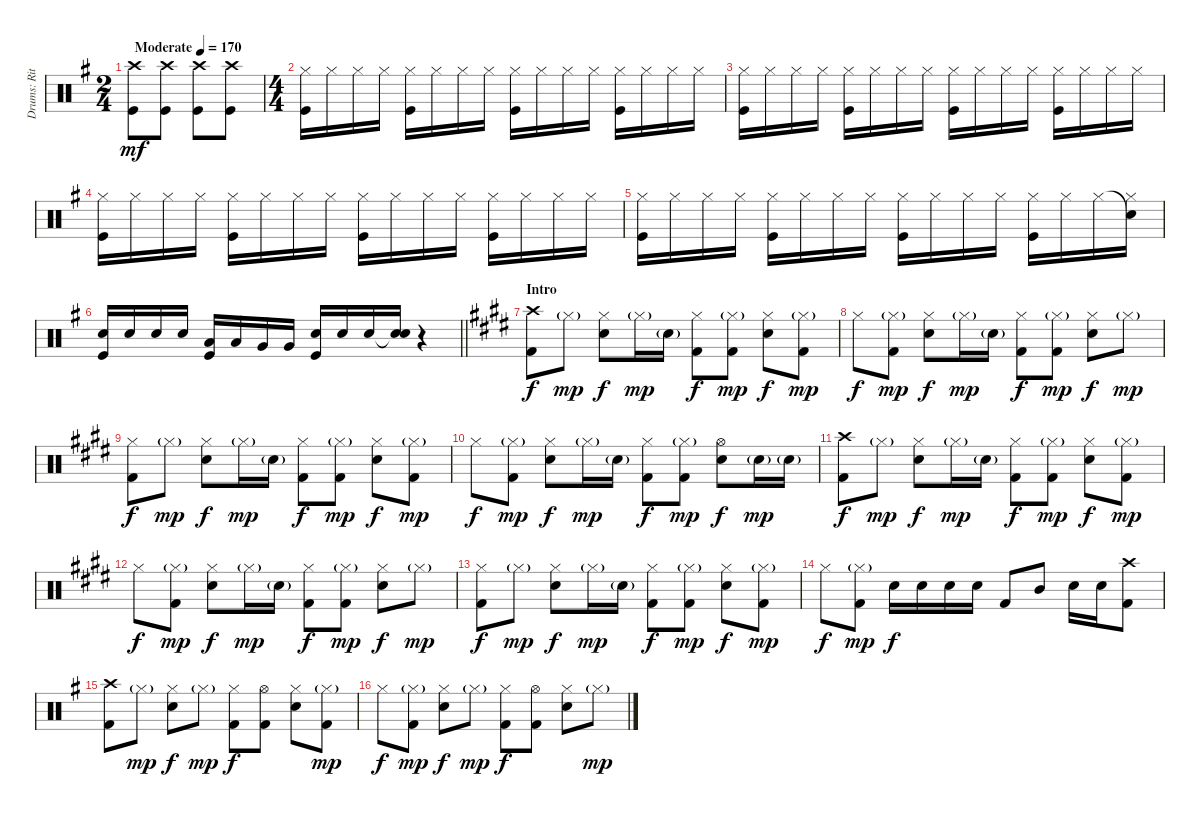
\track ("Drums: Ritsu Tainaka" "Drums: Rit") {instrument percussion}
\staff {score}
\articulation defaults
\ts (2 4)
\tempo (170 "Moderate")
\clef neutral
\ks eminor
("Crash high (hit)" "Kick (hit)").8{dy mf} ("Crash high (hit)" "Kick (hit)").8 ("Crash high (hit)" "Kick (hit)").8 ("Crash high (hit)" "Kick (hit)").8 |
\ts (4 4)
("Hi-Hat (closed)" "Kick (hit)").16 "Hi-Hat (closed)".16 "Hi-Hat (closed)".16 "Hi-Hat (closed)".16 ("Hi-Hat (closed)" "Kick (hit)").16 "Hi-Hat (closed)".16 "Hi-Hat (closed)".16 "Hi-Hat (closed)".16 ("Hi-Hat (closed)" "Kick (hit)").16 "Hi-Hat (closed)".16 "Hi-Hat (closed)".16 "Hi-Hat (closed)".16 ("Hi-Hat (closed)" "Kick (hit)").16 "Hi-Hat (closed)".16 "Hi-Hat (closed)".16 "Hi-Hat (closed)".16 |
("Hi-Hat (closed)" "Kick (hit)").16 "Hi-Hat (closed)".16 "Hi-Hat (closed)".16 "Hi-Hat (closed)".16 ("Hi-Hat (closed)" "Kick (hit)").16 "Hi-Hat (closed)".16 "Hi-Hat (closed)".16 "Hi-Hat (closed)".16 ("Hi-Hat (closed)" "Kick (hit)").16 "Hi-Hat (closed)".16 "Hi-Hat (closed)".16 "Hi-Hat (closed)".16 ("Hi-Hat (closed)" "Kick (hit)").16 "Hi-Hat (closed)".16 "Hi-Hat (closed)".16 "Hi-Hat (closed)".16 |
("Hi-Hat (closed)" "Kick (hit)").16 "Hi-Hat (closed)".16 "Hi-Hat (closed)".16 "Hi-Hat (closed)".16 ("Hi-Hat (closed)" "Kick (hit)").16 "Hi-Hat (closed)".16 "Hi-Hat (closed)".16 "Hi-Hat (closed)".16 ("Hi-Hat (closed)" "Kick (hit)").16 "Hi-Hat (closed)".16 "Hi-Hat (closed)".16 "Hi-Hat (closed)".16 ("Hi-Hat (closed)" "Kick (hit)").16 "Hi-Hat (closed)".16 "Hi-Hat (closed)".16 "Hi-Hat (closed)".16 |
("Hi-Hat (closed)" "Kick (hit)").16 "Hi-Hat (closed)".16 "Hi-Hat (closed)".16 "Hi-Hat (closed)".16 ("Hi-Hat (closed)" "Kick (hit)").16 "Hi-Hat (closed)".16 "Hi-Hat (closed)".16 "Hi-Hat (closed)".16 ("Hi-Hat (closed)" "Kick (hit)").16 "Hi-Hat (closed)".16 "Hi-Hat (closed)".16 "Hi-Hat (closed)".16 ("Hi-Hat (closed)" "Kick (hit)").16 "Hi-Hat (closed)".16 "Hi-Hat (closed)".16 ("Snare (hit)"{t} "Hi-Hat (closed)").16 |
\barLineRight lightlight
("Snare (hit) 2" "Kick (hit)").16 "Snare (hit) 2".16 "Snare (hit) 2".16 "Snare (hit) 2".16 ("Low Tom (hit)" "Kick (hit)").16 "Low Tom (hit)".16 "Very Low Tom (hit)".16 "Very Low Tom (hit)".16 ("Snare (hit) 2" "Kick (hit)").16 "Snare (hit) 2".16 "Snare (hit) 2".16 ("Snare (hit)"{t} "Snare (hit) 2").16 r.4{volume 0} |
\section ("" "Intro")
\ks e
("Crash high (hit)" "Kick (hit) 2").8{dy f volume 16} "Hi-Hat (closed)"{g}.8{dy mp} ("Hi-Hat (closed)" "Electric Snare (hit)").8{dy f} "Hi-Hat (closed)"{g}.16{dy mp} "Electric Snare (hit)"{g}.16 ("Hi-Hat (closed)" "Kick (hit) 2").8{dy f} ("Hi-Hat (closed)"{g} "Kick (hit) 2").8{dy mp} ("Hi-Hat (closed)" "Electric Snare (hit)").8{dy f} ("Hi-Hat (closed)"{g} "Kick (hit) 2").8{dy mp} |
"Hi-Hat (closed)".8{dy f} ("Hi-Hat (closed)"{g} "Kick (hit) 2").8{dy mp} ("Hi-Hat (closed)" "Electric Snare (hit)").8{dy f} "Hi-Hat (closed)"{g}.16{dy mp} "Electric Snare (hit)"{g}.16 ("Hi-Hat (closed)" "Kick (hit) 2").8{dy f} ("Hi-Hat (closed)"{g} "Kick (hit) 2").8{dy mp} ("Hi-Hat (closed)" "Electric Snare (hit)").8{dy f} "Hi-Hat (closed)"{g}.8{dy mp} |
("Hi-Hat (closed)" "Kick (hit) 2").8{dy f} "Hi-Hat (closed)"{g}.8{dy mp} ("Hi-Hat (closed)" "Electric Snare (hit)").8{dy f} "Hi-Hat (closed)"{g}.16{dy mp} "Electric Snare (hit)"{g}.16 ("Hi-Hat (closed)" "Kick (hit) 2").8{dy f} ("Hi-Hat (closed)"{g} "Kick (hit) 2").8{dy mp} ("Hi-Hat (closed)" "Electric Snare (hit)").8{dy f} ("Hi-Hat (closed)"{g} "Kick (hit) 2").8{dy mp} |
"Hi-Hat (closed)".8{dy f} ("Hi-Hat (closed)"{g} "Kick (hit) 2").8{dy mp} ("Hi-Hat (closed)" "Electric Snare (hit)").8{dy f} "Hi-Hat (closed)"{g}.16{dy mp} "Electric Snare (hit)"{g}.16 ("Hi-Hat (closed)" "Kick (hit) 2").8{dy f} ("Hi-Hat (closed)"{g} "Kick (hit) 2").8{dy mp} ("Hi-Hat (open)" "Electric Snare (hit)").8{dy f} "Electric Snare (hit)"{g}.16{dy mp} "Electric Snare (hit)"{g}.16 |
("Crash high (hit)" "Kick (hit) 2").8{dy f} "Hi-Hat (closed)"{g}.8{dy mp} ("Hi-Hat (closed)" "Electric Snare (hit)").8{dy f} "Hi-Hat (closed)"{g}.16{dy mp} "Electric Snare (hit)"{g}.16 ("Hi-Hat (closed)" "Kick (hit) 2").8{dy f} ("Hi-Hat (closed)"{g} "Kick (hit) 2").8{dy mp} ("Hi-Hat (closed)" "Electric Snare (hit)").8{dy f} ("Hi-Hat (closed)"{g} "Kick (hit) 2").8{dy mp} |
"Hi-Hat (closed)".8{dy f} ("Hi-Hat (closed)"{g} "Kick (hit) 2").8{dy mp} ("Hi-Hat (closed)" "Electric Snare (hit)").8{dy f} "Hi-Hat (closed)"{g}.16{dy mp} "Electric Snare (hit)"{g}.16 ("Hi-Hat (closed)" "Kick (hit) 2").8{dy f} ("Hi-Hat (closed)"{g} "Kick (hit) 2").8{dy mp} ("Hi-Hat (closed)" "Electric Snare (hit)").8{dy f} "Hi-Hat (closed)"{g}.8{dy mp} |
("Hi-Hat (closed)" "Kick (hit) 2").8{dy f} "Hi-Hat (closed)"{g}.8{dy mp} ("Hi-Hat (closed)" "Electric Snare (hit)").8{dy f} "Hi-Hat (closed)"{g}.16{dy mp} "Electric Snare (hit)"{g}.16 ("Hi-Hat (closed)" "Kick (hit) 2").8{dy f} ("Hi-Hat (closed)"{g} "Kick (hit) 2").8{dy mp} ("Hi-Hat (closed)" "Electric Snare (hit)").8{dy f} ("Hi-Hat (closed)"{g} "Kick (hit) 2").8{dy mp} |
"Hi-Hat (closed)".8{dy f} ("Hi-Hat (closed)"{g} "Kick (hit) 2").8{dy mp} "Electric Snare (hit)".16{dy f} "Electric Snare (hit)".16 "Electric Snare (hit)".16 "Electric Snare (hit)".16 "Kick (hit) 2".8 "Mid Tom (hit)".8 "Electric Snare (hit)".16 "Electric Snare (hit)".16 ("Crash high (hit)" "Kick (hit) 2").8 |
\ks eminor
("Crash high (hit)" "Kick (hit) 2").8 "Hi-Hat (closed)"{g}.8{dy mp} ("Hi-Hat (closed)" "Electric Snare (hit)").8{dy f} "Hi-Hat (closed)"{g}.8{dy mp} ("Hi-Hat (closed)" "Kick (hit) 2").8{dy f} ("Hi-Hat (open)" "Kick (hit) 2").8 ("Hi-Hat (closed)" "Electric Snare (hit)").8 ("Hi-Hat (closed)"{g} "Kick (hit) 2").8{dy mp} |
"Hi-Hat (closed)".8{dy f} ("Hi-Hat (closed)"{g} "Kick (hit) 2").8{dy mp} ("Hi-Hat (closed)" "Electric Snare (hit)").8{dy f} "Hi-Hat (closed)"{g}.8{dy mp} ("Hi-Hat (closed)" "Kick (hit) 2").8{dy f} ("Hi-Hat (open)" "Kick (hit) 2").8 ("Hi-Hat (closed)" "Electric Snare (hit)").8 "Hi-Hat (closed)"{g}.8{dy mp}
